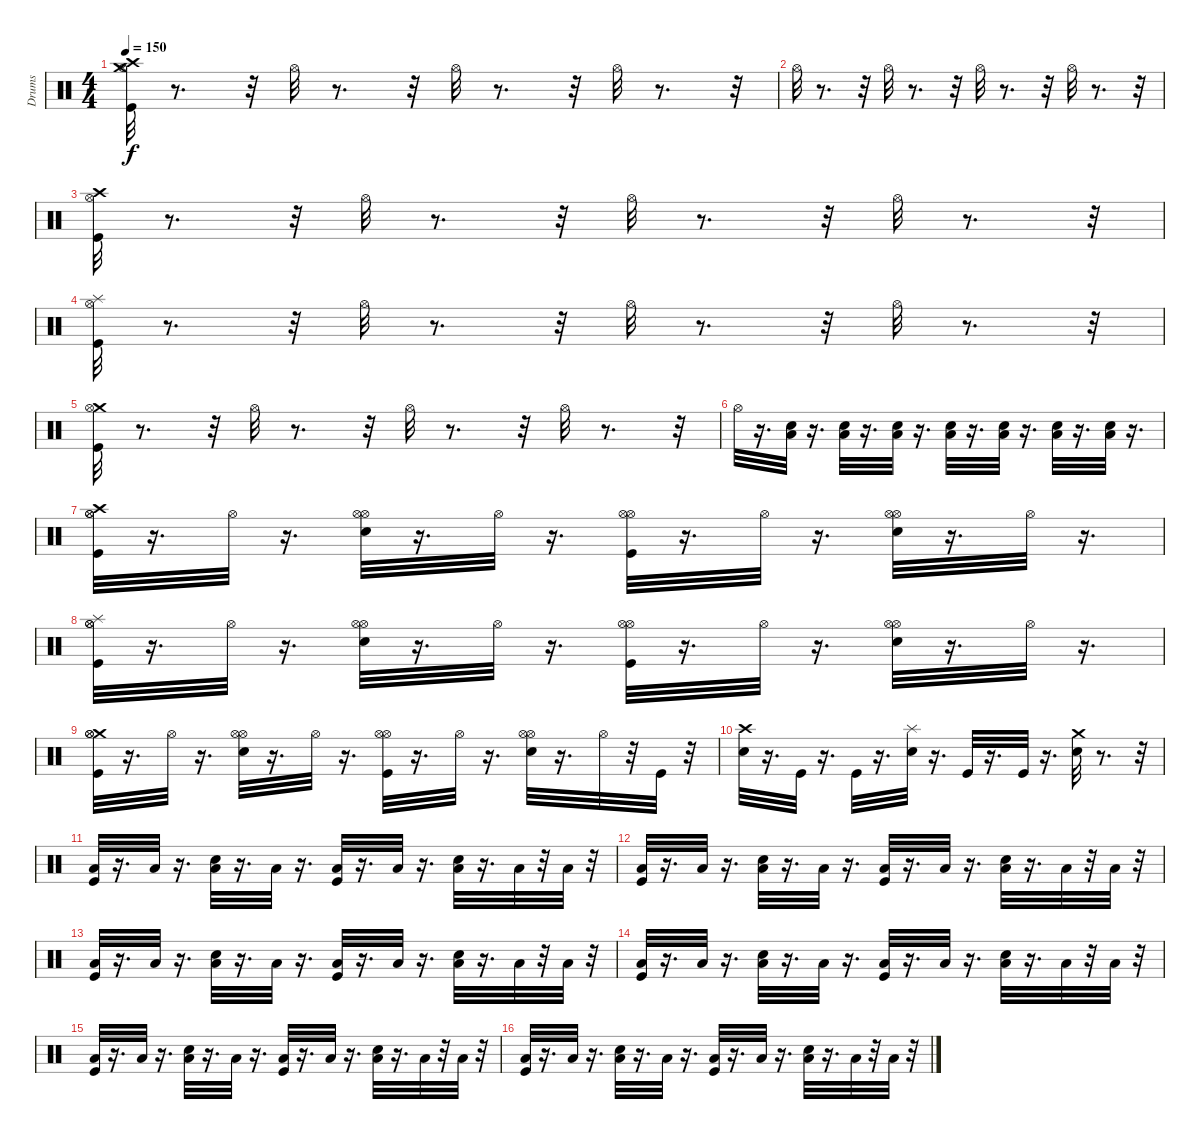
\track ("Drums" "Drums") {instrument percussion}
\staff {score}
\articulation defaults
\ts (4 4)
\tempo 150
\clef neutral
\ks c
("Hi-Hat (open)" "Crash medium (hit)" "Crash high (hit)" "Kick (hit)").32{dy f} r.8{d} r.32 "Hi-Hat (open)".32 r.8{d} r.32 "Hi-Hat (open)".32 r.8{d} r.32 "Hi-Hat (open)".32 r.8{d} r.32 |
"Hi-Hat (open)".32 r.8{d} r.32 "Hi-Hat (open)".32 r.8{d} r.32 "Hi-Hat (open)".32 r.8{d} r.32 "Hi-Hat (open)".32 r.8{d} r.32 |
("Kick (hit)" "Crash high (hit)" "Hi-Hat (open)").32 r.8{d} r.32 "Hi-Hat (open)".32 r.8{d} r.32 "Hi-Hat (open)".32 r.8{d} r.32 "Hi-Hat (open)".32 r.8{d} r.32 |
("Kick (hit)" "Splash (hit)" "Hi-Hat (open)").32 r.8{d} r.32 "Hi-Hat (open)".32 r.8{d} r.32 "Hi-Hat (open)".32 r.8{d} r.32 "Hi-Hat (open)".32 r.8{d} r.32 |
("Kick (hit)" "Crash medium (hit)" "Hi-Hat (open)").32 r.8{d} r.32 "Hi-Hat (open)".32 r.8{d} r.32 "Hi-Hat (open)".32 r.8{d} r.32 "Hi-Hat (open)".32 r.8{d} r.32 |
"Hi-Hat (open)".32 r.16{d} ("Snare (hit) 2" "Low Floor Tom (hit)").32 r.16{d} ("Snare (hit) 2" "Low Floor Tom (hit)").32 r.16{d} ("Low Floor Tom (hit)" "Snare (hit) 2").32 r.16{d} ("Snare (hit) 2" "Low Floor Tom (hit)").32 r.16{d} ("Snare (hit) 2" "Low Floor Tom (hit)").32 r.16{d} ("Low Floor Tom (hit)" "Snare (hit) 2").32 r.16{d} ("Snare (hit) 2" "Low Floor Tom (hit)").32 r.16{d} |
("Kick (hit)" "Crash high (hit)" "Hi-Hat (open)" "Hi-Hat (open)").32 r.16{d} "Hi-Hat (open)".32 r.16{d} ("Snare (hit) 2" "Hi-Hat (open)" "Hi-Hat (open)").32 r.16{d} "Hi-Hat (open)".32 r.16{d} ("Kick (hit)" "Hi-Hat (open)" "Hi-Hat (open)").32 r.16{d} "Hi-Hat (open)".32 r.16{d} ("Snare (hit) 2" "Hi-Hat (open)" "Hi-Hat (open)").32 r.16{d} "Hi-Hat (open)".32 r.16{d} |
("Kick (hit)" "Splash (hit)" "Hi-Hat (open)" "Hi-Hat (open)").32 r.16{d} "Hi-Hat (open)".32 r.16{d} ("Snare (hit) 2" "Hi-Hat (open)" "Hi-Hat (open)").32 r.16{d} "Hi-Hat (open)".32 r.16{d} ("Kick (hit)" "Hi-Hat (open)" "Hi-Hat (open)").32 r.16{d} "Hi-Hat (open)".32 r.16{d} ("Snare (hit) 2" "Hi-Hat (open)" "Hi-Hat (open)").32 r.16{d} "Hi-Hat (open)".32 r.16{d} |
("Kick (hit)" "Crash medium (hit)" "Hi-Hat (open)" "Hi-Hat (open)").32 r.16{d} "Hi-Hat (open)".32 r.16{d} ("Snare (hit) 2" "Hi-Hat (open)" "Hi-Hat (open)").32 r.16{d} "Hi-Hat (open)".32 r.16{d} ("Kick (hit)" "Hi-Hat (open)" "Hi-Hat (open)").32 r.16{d} "Hi-Hat (open)".32 r.16{d} ("Snare (hit) 2" "Hi-Hat (open)" "Hi-Hat (open)").32 r.16{d} "Hi-Hat (open)".32 r.32 "Kick (hit)".32 r.32 |
("Crash high (hit)" "Snare (hit) 2").32 r.16{d} "Kick (hit)".32 r.16{d} "Kick (hit)".32 r.16{d} ("Splash (hit)" "Snare (hit) 2").32 r.16{d} "Kick (hit)".32 r.16{d} "Kick (hit)".32 r.16{d} ("Crash medium (hit)" "Snare (hit) 2").32 r.8{d} r.32 |
("Kick (hit)" "Low Floor Tom (hit)").32 r.16{d} "Low Floor Tom (hit)".32 r.16{d} ("Low Floor Tom (hit)" "Snare (hit) 2").32 r.16{d} "Low Floor Tom (hit)".32 r.16{d} ("Kick (hit)" "Low Floor Tom (hit)").32 r.16{d} "Low Floor Tom (hit)".32 r.16{d} ("Low Floor Tom (hit)" "Snare (hit) 2").32 r.16{d} "Low Floor Tom (hit)".32 r.32 "Low Floor Tom (hit)".32 r.32 |
("Kick (hit)" "Low Floor Tom (hit)").32 r.16{d} "Low Floor Tom (hit)".32 r.16{d} ("Low Floor Tom (hit)" "Snare (hit) 2").32 r.16{d} "Low Floor Tom (hit)".32 r.16{d} ("Low Floor Tom (hit)" "Kick (hit)").32 r.16{d} "Low Floor Tom (hit)".32 r.16{d} ("Snare (hit) 2" "Low Floor Tom (hit)").32 r.16{d} "Low Floor Tom (hit)".32 r.32 "Low Floor Tom (hit)".32 r.32 |
("Kick (hit)" "Low Floor Tom (hit)").32 r.16{d} "Low Floor Tom (hit)".32 r.16{d} ("Low Floor Tom (hit)" "Snare (hit) 2").32 r.16{d} "Low Floor Tom (hit)".32 r.16{d} ("Kick (hit)" "Low Floor Tom (hit)").32 r.16{d} "Low Floor Tom (hit)".32 r.16{d} ("Low Floor Tom (hit)" "Snare (hit) 2").32 r.16{d} "Low Floor Tom (hit)".32 r.32 "Low Floor Tom (hit)".32 r.32 |
("Kick (hit)" "Low Floor Tom (hit)").32 r.16{d} "Low Floor Tom (hit)".32 r.16{d} ("Low Floor Tom (hit)" "Snare (hit) 2").32 r.16{d} "Low Floor Tom (hit)".32 r.16{d} ("Low Floor Tom (hit)" "Kick (hit)").32 r.16{d} "Low Floor Tom (hit)".32 r.16{d} ("Snare (hit) 2" "Low Floor Tom (hit)").32 r.16{d} "Low Floor Tom (hit)".32 r.32 "Low Floor Tom (hit)".32 r.32 |
("Kick (hit)" "Low Floor Tom (hit)").32 r.16{d} "Low Floor Tom (hit)".32 r.16{d} ("Low Floor Tom (hit)" "Snare (hit) 2").32 r.16{d} "Low Floor Tom (hit)".32 r.16{d} ("Kick (hit)" "Low Floor Tom (hit)").32 r.16{d} "Low Floor Tom (hit)".32 r.16{d} ("Low Floor Tom (hit)" "Snare (hit) 2").32 r.16{d} "Low Floor Tom (hit)".32 r.32 "Low Floor Tom (hit)".32 r.32 |
("Kick (hit)" "Low Floor Tom (hit)").32 r.16{d} "Low Floor Tom (hit)".32 r.16{d} ("Low Floor Tom (hit)" "Snare (hit) 2").32 r.16{d} "Low Floor Tom (hit)".32 r.16{d} ("Low Floor Tom (hit)" "Kick (hit)").32 r.16{d} "Low Floor Tom (hit)".32 r.16{d} ("Snare (hit) 2" "Low Floor Tom (hit)").32 r.16{d} "Low Floor Tom (hit)".32 r.32 "Low Floor Tom (hit)".32 r.32
